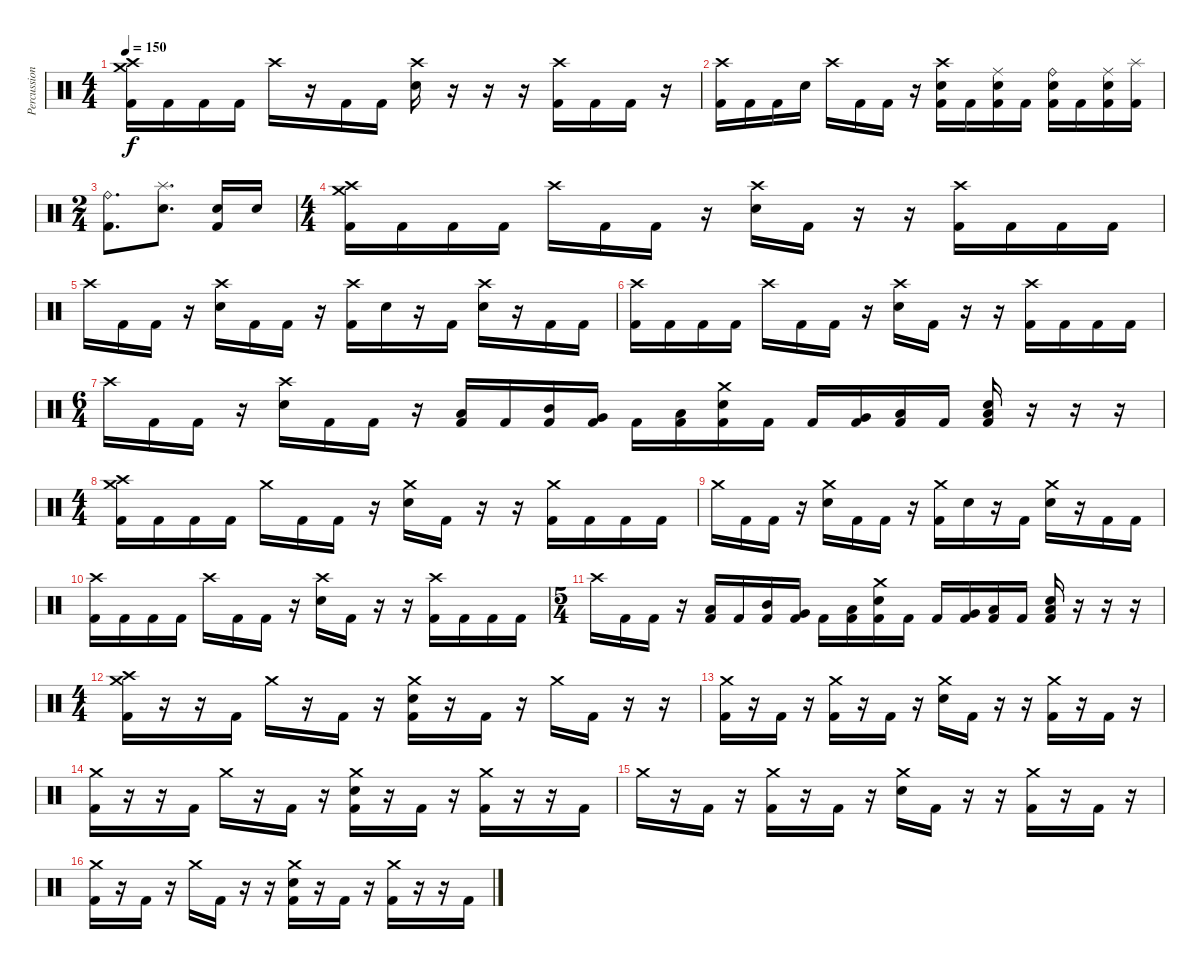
\track ("Percussion" "Percussion") {instrument percussion}
\staff {score}
\articulation defaults
\ts (4 4)
\tempo 150
\clef neutral
\ks c
("Crash high (hit)" "Crash medium (hit)" "Kick (hit) 2").16{dy f} "Kick (hit) 2".16 "Kick (hit) 2".16 "Kick (hit) 2".16 "Crash high (hit)".16 r.16 "Kick (hit) 2".16 "Kick (hit) 2".16 ("Crash high (hit)" "Snare (hit) 2").16 r.16 r.16 r.16 ("Crash high (hit)" "Kick (hit) 2").16 "Kick (hit) 2".16 "Kick (hit) 2".16 r.16 |
("Crash high (hit)" "Kick (hit) 2").16 "Kick (hit) 2".16 "Kick (hit) 2".16 "Snare (hit) 2".16 "Crash high (hit)".16 "Kick (hit) 2".16 "Kick (hit) 2".16 r.16 ("Crash high (hit)" "Snare (hit) 2" "Kick (hit) 2").16 "Kick (hit) 2".16 ("Ride (middle)" "Snare (hit) 2" "Kick (hit) 2").16 "Kick (hit) 2".16 ("Ride (bell)" "Snare (hit) 2" "Kick (hit) 2").16 "Kick (hit) 2".16 ("Ride (middle)" "Snare (hit) 2" "Kick (hit) 2").16 ("Splash (hit)" "Kick (hit) 2").16 |
\ts (2 4)
("Ride (bell)" "Kick (hit) 2").8{d} ("Splash (hit)" "Snare (hit) 2").8{d} ("Snare (hit) 2" "Kick (hit) 2").16 "Snare (hit) 2".16 |
\ts (4 4)
("Crash medium (hit)" "Crash high (hit)" "Kick (hit) 2").16 "Kick (hit) 2".16 "Kick (hit) 2".16 "Kick (hit) 2".16 "Crash high (hit)".16 "Kick (hit) 2".16 "Kick (hit) 2".16 r.16 ("Crash high (hit)" "Snare (hit) 2").16 "Kick (hit) 2".16 r.16 r.16 ("Crash high (hit)" "Kick (hit) 2").16 "Kick (hit) 2".16 "Kick (hit) 2".16 "Kick (hit) 2".16 |
"Crash high (hit)".16 "Kick (hit) 2".16 "Kick (hit) 2".16 r.16 ("Crash high (hit)" "Snare (hit) 2").16 "Kick (hit) 2".16 "Kick (hit) 2".16 r.16 ("Crash high (hit)" "Kick (hit) 2").16 "Snare (hit) 2".16 r.16 "Kick (hit) 2".16 ("Crash high (hit)" "Snare (hit) 2").16 r.16 "Kick (hit) 2".16 "Kick (hit) 2".16 |
("Crash high (hit)" "Kick (hit) 2").16 "Kick (hit) 2".16 "Kick (hit) 2".16 "Kick (hit) 2".16 "Crash high (hit)".16 "Kick (hit) 2".16 "Kick (hit) 2".16 r.16 ("Crash high (hit)" "Snare (hit) 2").16 "Kick (hit) 2".16 r.16 r.16 ("Crash high (hit)" "Kick (hit) 2").16 "Kick (hit) 2".16 "Kick (hit) 2".16 "Kick (hit) 2".16 |
\ts (6 4)
"Crash high (hit)".16 "Kick (hit) 2".16 "Kick (hit) 2".16 r.16 ("Crash high (hit)" "Snare (hit) 2").16 "Kick (hit) 2".16 "Kick (hit) 2".16 r.16 ("Low Tom (hit)" "Kick (hit) 2").16 "Kick (hit) 2".16 ("Mid Tom (hit)" "Kick (hit) 2").16 ("Very Low Tom (hit)" "Kick (hit) 2").16 "Kick (hit) 2".16 ("Low Floor Tom (hit)" "Kick (hit) 2").16 ("Crash medium (hit)" "Snare (hit) 2" "Kick (hit) 2").16 "Kick (hit) 2".16 "Kick (hit) 2".16 ("Very Low Tom (hit)" "Kick (hit) 2").16 ("Low Floor Tom (hit)" "Kick (hit) 2").16 "Kick (hit) 2".16 ("Low Floor Tom (hit)" "Snare (hit) 2" "Kick (hit) 2").16 r.16 r.16 r.16 |
\ts (4 4)
("Crash medium (hit)" "Crash high (hit)" "Kick (hit) 2").16 "Kick (hit) 2".16 "Kick (hit) 2".16 "Kick (hit) 2".16 "Crash medium (hit)".16 "Kick (hit) 2".16 "Kick (hit) 2".16 r.16 ("Crash medium (hit)" "Snare (hit) 2").16 "Kick (hit) 2".16 r.16 r.16 ("Crash medium (hit)" "Kick (hit) 2").16 "Kick (hit) 2".16 "Kick (hit) 2".16 "Kick (hit) 2".16 |
"Crash medium (hit)".16 "Kick (hit) 2".16 "Kick (hit) 2".16 r.16 ("Crash medium (hit)" "Snare (hit) 2").16 "Kick (hit) 2".16 "Kick (hit) 2".16 r.16 ("Crash medium (hit)" "Kick (hit) 2").16 "Snare (hit) 2".16 r.16 "Kick (hit) 2".16 ("Crash medium (hit)" "Snare (hit) 2").16 r.16 "Kick (hit) 2".16 "Kick (hit) 2".16 |
("Crash high (hit)" "Kick (hit) 2").16 "Kick (hit) 2".16 "Kick (hit) 2".16 "Kick (hit) 2".16 "Crash high (hit)".16 "Kick (hit) 2".16 "Kick (hit) 2".16 r.16 ("Crash high (hit)" "Snare (hit) 2").16 "Kick (hit) 2".16 r.16 r.16 ("Crash high (hit)" "Kick (hit) 2").16 "Kick (hit) 2".16 "Kick (hit) 2".16 "Kick (hit) 2".16 |
\ts (5 4)
"Crash high (hit)".16 "Kick (hit) 2".16 "Kick (hit) 2".16 r.16 ("Low Tom (hit)" "Kick (hit) 2").16 "Kick (hit) 2".16 ("Mid Tom (hit)" "Kick (hit) 2").16 ("Very Low Tom (hit)" "Kick (hit) 2").16 "Kick (hit) 2".16 ("Low Floor Tom (hit)" "Kick (hit) 2").16 ("Crash medium (hit)" "Snare (hit) 2" "Kick (hit) 2").16 "Kick (hit) 2".16 "Kick (hit) 2".16 ("Very Low Tom (hit)" "Kick (hit) 2").16 ("Low Floor Tom (hit)" "Kick (hit) 2").16 "Kick (hit) 2".16 ("Low Floor Tom (hit)" "Snare (hit) 2" "Kick (hit) 2").16 r.16 r.16 r.16 |
\ts (4 4)
("Crash medium (hit)" "Crash high (hit)" "Kick (hit) 2").16 r.16 r.16 "Kick (hit) 2".16 "Crash medium (hit)".16 r.16 "Kick (hit) 2".16 r.16 ("Crash medium (hit)" "Electric Snare (hit)" "Kick (hit) 2").16 r.16 "Kick (hit) 2".16 r.16 "Crash medium (hit)".16 "Kick (hit) 2".16 r.16 r.16 |
("Crash medium (hit)" "Kick (hit) 2").16 r.16 "Kick (hit) 2".16 r.16 ("Crash medium (hit)" "Kick (hit) 2").16 r.16 "Kick (hit) 2".16 r.16 ("Crash medium (hit)" "Electric Snare (hit)").16 "Kick (hit) 2".16 r.16 r.16 ("Crash medium (hit)" "Kick (hit) 2").16 r.16 "Kick (hit) 2".16 r.16 |
("Crash medium (hit)" "Kick (hit) 2").16 r.16 r.16 "Kick (hit) 2".16 "Crash medium (hit)".16 r.16 "Kick (hit) 2".16 r.16 ("Crash medium (hit)" "Electric Snare (hit)" "Kick (hit) 2").16 r.16 "Kick (hit) 2".16 r.16 ("Crash medium (hit)" "Kick (hit) 2").16 r.16 r.16 "Kick (hit) 2".16 |
"Crash medium (hit)".16 r.16 "Kick (hit) 2".16 r.16 ("Crash medium (hit)" "Kick (hit) 2").16 r.16 "Kick (hit) 2".16 r.16 ("Crash medium (hit)" "Electric Snare (hit)").16 "Kick (hit) 2".16 r.16 r.16 ("Crash medium (hit)" "Kick (hit) 2").16 r.16 "Kick (hit) 2".16 r.16 |
("Crash medium (hit)" "Kick (hit) 2").16 r.16 "Kick (hit) 2".16 r.16 "Crash medium (hit)".16 "Kick (hit) 2".16 r.16 r.16 ("Crash medium (hit)" "Electric Snare (hit)" "Kick (hit) 2").16 r.16 "Kick (hit) 2".16 r.16 ("Crash medium (hit)" "Kick (hit) 2").16 r.16 r.16 "Kick (hit) 2".16
